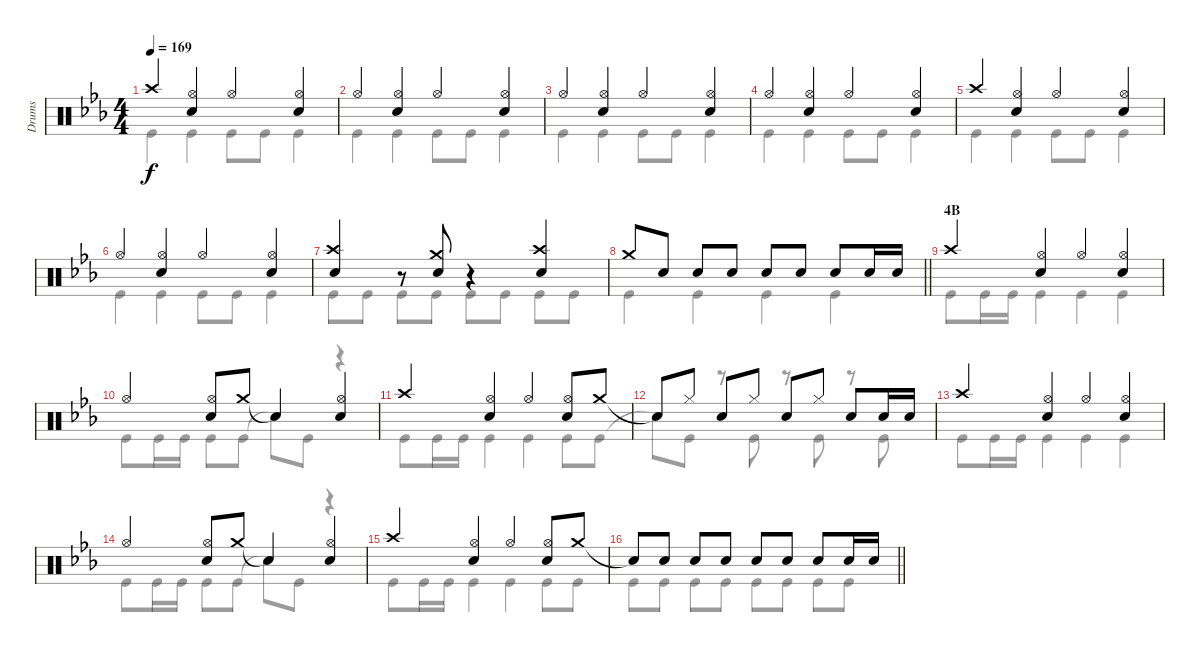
\track ("Drums" "Drums") {instrument percussion}
\staff {score}
\articulation defaults
\voice
\ts (4 4)
\tempo 169
\clef neutral
\ks eb "Crash high (hit)".4{dy f}
("Hi-Hat (open)" "Snare (hit) 2").4 "Hi-Hat (open)".4 ("Hi-Hat (open)" "Snare (hit) 2").4 |
"Hi-Hat (open)".4 ("Hi-Hat (open)" "Snare (hit) 2").4 "Hi-Hat (open)".4 ("Hi-Hat (open)" "Snare (hit) 2").4 |
"Hi-Hat (open)".4 ("Hi-Hat (open)" "Snare (hit) 2").4 "Hi-Hat (open)".4 ("Hi-Hat (open)" "Snare (hit) 2").4 |
"Hi-Hat (open)".4 ("Hi-Hat (open)" "Snare (hit) 2").4 "Hi-Hat (open)".4 ("Hi-Hat (open)" "Snare (hit) 2").4 |
"Crash high (hit)".4 ("Hi-Hat (open)" "Snare (hit) 2").4 "Hi-Hat (open)".4 ("Hi-Hat (open)" "Snare (hit) 2").4 |
"Hi-Hat (open)".4 ("Hi-Hat (open)" "Snare (hit) 2").4 "Hi-Hat (open)".4 ("Hi-Hat (open)" "Snare (hit) 2").4 |
("Crash high (hit)" "Snare (hit) 2").4 r.8 ("Crash medium (hit)" "Snare (hit) 2").8 r.4 ("Crash high (hit)" "Snare (hit) 2").4 |
\barLineRight lightlight "Crash medium (hit)".8 "Snare (hit) 2".8 "Snare (hit) 2".8 "Snare (hit) 2".8 "Snare (hit) 2".8 "Snare (hit) 2".8 "Snare (hit) 2".8 "Snare (hit) 2".16 "Snare (hit) 2".16
|
\section ("" "4B")
"Crash high (hit)".4 ("Hi-Hat (open)" "Snare (hit) 2").4 "Hi-Hat (open)".4 ("Hi-Hat (open)" "Snare (hit) 2").4 |
"Hi-Hat (open)".4 ("Hi-Hat (open)" "Snare (hit) 2").8 "Crash medium (hit)".8 "Snare (hit)"{t}.4 ("Hi-Hat (open)" "Snare (hit) 2").4 |
"Crash high (hit)".4 ("Hi-Hat (open)" "Snare (hit) 2").4 "Hi-Hat (open)".4 ("Hi-Hat (open)" "Snare (hit) 2").8 "Crash medium (hit)".8 |
"Snare (hit)"{t}.8 "Hi-Hat (closed)".8 "Snare (hit) 2".8 "Hi-Hat (closed)".8 "Snare (hit) 2".8 "Hi-Hat (closed)".8 "Snare (hit) 2".8 "Snare (hit) 2".16 "Snare (hit) 2".16 |
"Crash high (hit)".4 ("Hi-Hat (open)" "Snare (hit) 2").4 "Hi-Hat (open)".4 ("Hi-Hat (open)" "Snare (hit) 2").4 |
"Hi-Hat (open)".4 ("Hi-Hat (open)" "Snare (hit) 2").8 "Crash medium (hit)".8 "Snare (hit)"{t}.4 ("Hi-Hat (open)" "Snare (hit) 2").4 |
"Crash high (hit)".4 ("Hi-Hat (open)" "Snare (hit) 2").4 "Hi-Hat (open)".4 ("Hi-Hat (open)" "Snare (hit) 2").8 "Crash medium (hit)".8 |
\barLineRight lightlight "Snare (hit)"{t}.8 "Snare (hit) 2".8 "Snare (hit) 2".8 "Snare (hit) 2".8 "Snare (hit) 2".8 "Snare (hit) 2".8 "Snare (hit) 2".8 "Snare (hit) 2".16 "Snare (hit) 2".16
\voice
\clef neutral
\ottava regular
\simile none
\ks eb "Kick (hit)".4{dy f} "Kick (hit)".4 "Kick (hit)".8 "Kick (hit)".8 "Kick (hit)".4
|
"Kick (hit)".4 "Kick (hit)".4 "Kick (hit)".8 "Kick (hit)".8 "Kick (hit)".4 |
"Kick (hit)".4 "Kick (hit)".4 "Kick (hit)".8 "Kick (hit)".8 "Kick (hit)".4 |
"Kick (hit)".4 "Kick (hit)".4 "Kick (hit)".8 "Kick (hit)".8 "Kick (hit)".4 |
"Kick (hit)".4 "Kick (hit)".4 "Kick (hit)".8 "Kick (hit)".8 "Kick (hit)".4 |
"Kick (hit)".4 "Kick (hit)".4 "Kick (hit)".8 "Kick (hit)".8 "Kick (hit)".4 |
"Kick (hit)".8 "Kick (hit)".8 "Kick (hit)".8 "Kick (hit)".8 "Kick (hit)".8 "Kick (hit)".8 "Kick (hit)".8 "Kick (hit)".8 |
\barLineRight lightlight "Kick (hit)".4 "Kick (hit)".4 "Kick (hit)".4 "Kick (hit)".4
|
"Kick (hit)".8 "Kick (hit)".16 "Kick (hit)".16 "Kick (hit)".4 "Kick (hit)".4 "Kick (hit)".4 |
"Kick (hit)".8 "Kick (hit)".16 "Kick (hit)".16 "Kick (hit)".8 "Kick (hit)".8 "Snare (hit)"{t}.8 "Kick (hit)".8 r.4 |
"Kick (hit)".8 "Kick (hit)".16 "Kick (hit)".16 "Kick (hit)".4 "Kick (hit)".4 "Kick (hit)".8 "Kick (hit)".8 |
"Snare (hit)"{t}.8 "Kick (hit)".8 r.8 "Kick (hit)".8 r.8 "Kick (hit)".8 r.8 "Kick (hit)".8 |
"Kick (hit)".8 "Kick (hit)".16 "Kick (hit)".16 "Kick (hit)".4 "Kick (hit)".4 "Kick (hit)".4 |
"Kick (hit)".8 "Kick (hit)".16 "Kick (hit)".16 "Kick (hit)".8 "Kick (hit)".8 "Snare (hit)"{t}.8 "Kick (hit)".8 r.4 |
"Kick (hit)".8 "Kick (hit)".16 "Kick (hit)".16 "Kick (hit)".4 "Kick (hit)".4 "Kick (hit)".8 "Kick (hit)".8 |
\barLineRight lightlight "Kick (hit)".8 "Kick (hit)".8 "Kick (hit)".8 "Kick (hit)".8 "Kick (hit)".8 "Kick (hit)".8 "Kick (hit)".8 "Kick (hit)".8
